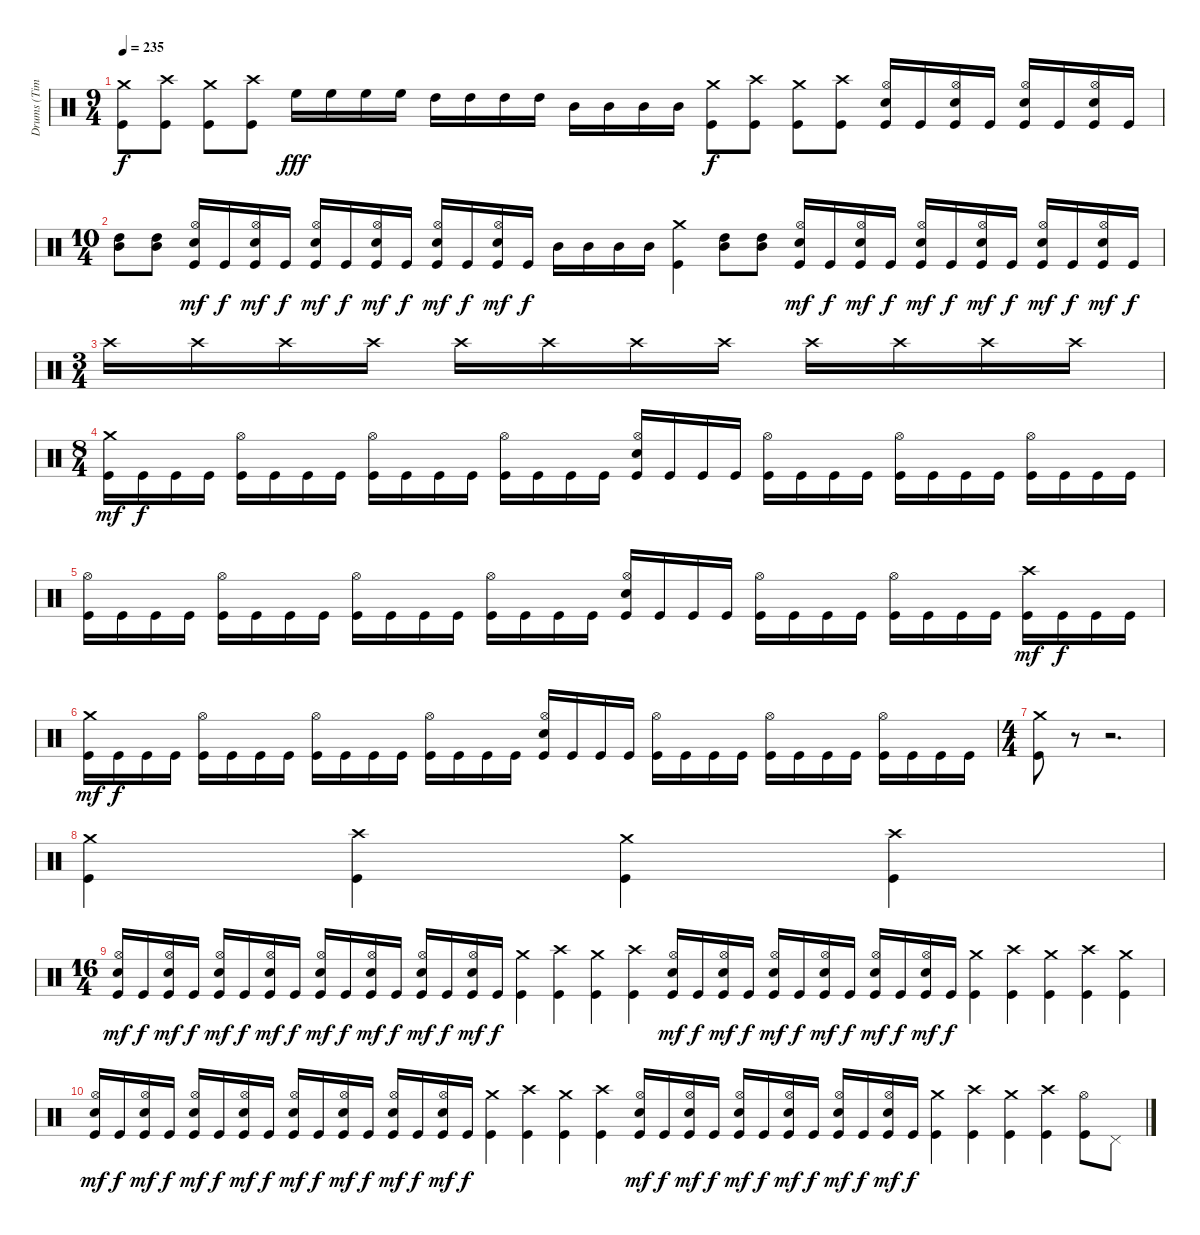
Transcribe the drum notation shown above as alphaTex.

\track ("Drums (Tim Yeung)" "Drums (Tim") {instrument percussion}
\staff {score}
\articulation defaults
\ts (9 4)
\tempo 235
\clef neutral
\ks c
("Crash medium (hit)" "Kick (hit)").8{dy f} ("Crash high (hit)" "Kick (hit)").8 ("Crash medium (hit)" "Kick (hit)").8 ("Crash high (hit)" "Kick (hit)").8 "High Floor Tom (hit)".16{dy fff} "High Floor Tom (hit)".16 "High Floor Tom (hit)".16 "High Floor Tom (hit)".16 "High Tom (hit)".16 "High Tom (hit)".16 "High Tom (hit)".16 "High Tom (hit)".16 "Mid Tom (hit)".16 "Mid Tom (hit)".16 "Mid Tom (hit)".16 "Mid Tom (hit)".16 ("Crash medium (hit)" "Kick (hit)").8{dy f} ("Crash high (hit)" "Kick (hit)").8 ("Crash medium (hit)" "Kick (hit)").8 ("Crash high (hit)" "Kick (hit)").8 ("Hi-Hat (open)" "Electric Snare (hit)" "Kick (hit)").16 "Kick (hit)".16 ("Hi-Hat (open)" "Electric Snare (hit)" "Kick (hit)").16 "Kick (hit)".16 ("Hi-Hat (open)" "Electric Snare (hit)" "Kick (hit)").16 "Kick (hit)".16 ("Hi-Hat (open)" "Electric Snare (hit)" "Kick (hit)").16 "Kick (hit)".16 |
\ts (10 4)
("High Tom (hit)" "Mid Tom (hit)").8 ("High Tom (hit)" "Mid Tom (hit)").8 ("Hi-Hat (open)" "Electric Snare (hit)" "Kick (hit)").16{dy mf} "Kick (hit)".16{dy f} ("Hi-Hat (open)" "Electric Snare (hit)" "Kick (hit)").16{dy mf} "Kick (hit)".16{dy f} ("Hi-Hat (open)" "Electric Snare (hit)" "Kick (hit)").16{dy mf} "Kick (hit)".16{dy f} ("Hi-Hat (open)" "Electric Snare (hit)" "Kick (hit)").16{dy mf} "Kick (hit)".16{dy f} ("Hi-Hat (open)" "Electric Snare (hit)" "Kick (hit)").16{dy mf} "Kick (hit)".16{dy f} ("Hi-Hat (open)" "Electric Snare (hit)" "Kick (hit)").16{dy mf} "Kick (hit)".16{dy f} "Mid Tom (hit)".16 "Mid Tom (hit)".16 "Mid Tom (hit)".16 "Mid Tom (hit)".16 ("Crash medium (hit)" "Kick (hit)").4 ("High Tom (hit)" "Mid Tom (hit)").8 ("High Tom (hit)" "Mid Tom (hit)").8 ("Hi-Hat (open)" "Electric Snare (hit)" "Kick (hit)").16{dy mf} "Kick (hit)".16{dy f} ("Hi-Hat (open)" "Electric Snare (hit)" "Kick (hit)").16{dy mf} "Kick (hit)".16{dy f} ("Hi-Hat (open)" "Electric Snare (hit)" "Kick (hit)").16{dy mf} "Kick (hit)".16{dy f} ("Hi-Hat (open)" "Electric Snare (hit)" "Kick (hit)").16{dy mf} "Kick (hit)".16{dy f} ("Hi-Hat (open)" "Electric Snare (hit)" "Kick (hit)").16{dy mf} "Kick (hit)".16{dy f} ("Hi-Hat (open)" "Electric Snare (hit)" "Kick (hit)").16{dy mf} "Kick (hit)".16{dy f} |
\ts (3 4)
"Crash high (hit)".16{volume 5} "Crash high (hit)".16{volume 16} "Crash high (hit)".16 "Crash high (hit)".16 "Crash high (hit)".16 "Crash high (hit)".16 "Crash high (hit)".16 "Crash high (hit)".16 "Crash high (hit)".16 "Crash high (hit)".16 "Crash high (hit)".16 "Crash high (hit)".16 |
\ts (8 4)
("Crash medium (hit)" "Kick (hit)").16{dy mf} "Kick (hit)".16{dy f} "Kick (hit)".16 "Kick (hit)".16 ("Hi-Hat (open)" "Kick (hit)").16 "Kick (hit)".16 "Kick (hit)".16 "Kick (hit)".16 ("Hi-Hat (open)" "Kick (hit)").16 "Kick (hit)".16 "Kick (hit)".16 "Kick (hit)".16 ("Hi-Hat (open)" "Kick (hit)").16 "Kick (hit)".16 "Kick (hit)".16 "Kick (hit)".16 ("Hi-Hat (open)" "Electric Snare (hit)" "Kick (hit)").16 "Kick (hit)".16 "Kick (hit)".16 "Kick (hit)".16 ("Hi-Hat (open)" "Kick (hit)").16 "Kick (hit)".16 "Kick (hit)".16 "Kick (hit)".16 ("Hi-Hat (open)" "Kick (hit)").16 "Kick (hit)".16 "Kick (hit)".16 "Kick (hit)".16 ("Hi-Hat (open)" "Kick (hit)").16 "Kick (hit)".16 "Kick (hit)".16 "Kick (hit)".16 |
("Hi-Hat (open)" "Kick (hit)").16 "Kick (hit)".16 "Kick (hit)".16 "Kick (hit)".16 ("Hi-Hat (open)" "Kick (hit)").16 "Kick (hit)".16 "Kick (hit)".16 "Kick (hit)".16 ("Hi-Hat (open)" "Kick (hit)").16 "Kick (hit)".16 "Kick (hit)".16 "Kick (hit)".16 ("Hi-Hat (open)" "Kick (hit)").16 "Kick (hit)".16 "Kick (hit)".16 "Kick (hit)".16 ("Hi-Hat (open)" "Electric Snare (hit)" "Kick (hit)").16 "Kick (hit)".16 "Kick (hit)".16 "Kick (hit)".16 ("Hi-Hat (open)" "Kick (hit)").16 "Kick (hit)".16 "Kick (hit)".16 "Kick (hit)".16 ("Hi-Hat (open)" "Kick (hit)").16 "Kick (hit)".16 "Kick (hit)".16 "Kick (hit)".16 ("Crash high (hit)" "Kick (hit)").16{dy mf} "Kick (hit)".16{dy f} "Kick (hit)".16 "Kick (hit)".16 |
("Crash medium (hit)" "Kick (hit)").16{dy mf} "Kick (hit)".16{dy f} "Kick (hit)".16 "Kick (hit)".16 ("Hi-Hat (open)" "Kick (hit)").16 "Kick (hit)".16 "Kick (hit)".16 "Kick (hit)".16 ("Hi-Hat (open)" "Kick (hit)").16 "Kick (hit)".16 "Kick (hit)".16 "Kick (hit)".16 ("Hi-Hat (open)" "Kick (hit)").16 "Kick (hit)".16 "Kick (hit)".16 "Kick (hit)".16 ("Hi-Hat (open)" "Electric Snare (hit)" "Kick (hit)").16 "Kick (hit)".16 "Kick (hit)".16 "Kick (hit)".16 ("Hi-Hat (open)" "Kick (hit)").16 "Kick (hit)".16 "Kick (hit)".16 "Kick (hit)".16 ("Hi-Hat (open)" "Kick (hit)").16 "Kick (hit)".16 "Kick (hit)".16 "Kick (hit)".16 ("Hi-Hat (open)" "Kick (hit)").16 "Kick (hit)".16 "Kick (hit)".16 "Kick (hit)".16 |
\ts (4 4)
("Crash medium (hit)" "Kick (hit)").8 r.8{volume 0} r.2{d} |
("Crash medium (hit)" "Kick (hit)").4{volume 16} ("Crash high (hit)" "Kick (hit)").4 ("Crash medium (hit)" "Kick (hit)").4 ("Crash high (hit)" "Kick (hit)").4 |
\ts (16 4)
("Hi-Hat (open)" "Electric Snare (hit)" "Kick (hit)").16{dy mf} "Kick (hit)".16{dy f} ("Hi-Hat (open)" "Electric Snare (hit)" "Kick (hit)").16{dy mf} "Kick (hit)".16{dy f} ("Hi-Hat (open)" "Electric Snare (hit)" "Kick (hit)").16{dy mf} "Kick (hit)".16{dy f} ("Hi-Hat (open)" "Electric Snare (hit)" "Kick (hit)").16{dy mf} "Kick (hit)".16{dy f} ("Hi-Hat (open)" "Electric Snare (hit)" "Kick (hit)").16{dy mf} "Kick (hit)".16{dy f} ("Hi-Hat (open)" "Electric Snare (hit)" "Kick (hit)").16{dy mf} "Kick (hit)".16{dy f} ("Hi-Hat (open)" "Electric Snare (hit)" "Kick (hit)").16{dy mf} "Kick (hit)".16{dy f} ("Hi-Hat (open)" "Electric Snare (hit)" "Kick (hit)").16{dy mf} "Kick (hit)".16{dy f} ("Crash medium (hit)" "Kick (hit)").4 ("Crash high (hit)" "Kick (hit)").4 ("Crash medium (hit)" "Kick (hit)").4 ("Crash high (hit)" "Kick (hit)").4 ("Hi-Hat (open)" "Electric Snare (hit)" "Kick (hit)").16{dy mf} "Kick (hit)".16{dy f} ("Hi-Hat (open)" "Electric Snare (hit)" "Kick (hit)").16{dy mf} "Kick (hit)".16{dy f} ("Hi-Hat (open)" "Electric Snare (hit)" "Kick (hit)").16{dy mf} "Kick (hit)".16{dy f} ("Hi-Hat (open)" "Electric Snare (hit)" "Kick (hit)").16{dy mf} "Kick (hit)".16{dy f} ("Hi-Hat (open)" "Electric Snare (hit)" "Kick (hit)").16{dy mf} "Kick (hit)".16{dy f} ("Hi-Hat (open)" "Electric Snare (hit)" "Kick (hit)").16{dy mf} "Kick (hit)".16{dy f} ("Crash medium (hit)" "Kick (hit)").4 ("Crash high (hit)" "Kick (hit)").4 ("Crash medium (hit)" "Kick (hit)").4 ("Crash high (hit)" "Kick (hit)").4 ("Crash medium (hit)" "Kick (hit)").4 |
("Hi-Hat (open)" "Electric Snare (hit)" "Kick (hit)").16{dy mf} "Kick (hit)".16{dy f} ("Hi-Hat (open)" "Electric Snare (hit)" "Kick (hit)").16{dy mf} "Kick (hit)".16{dy f} ("Hi-Hat (open)" "Electric Snare (hit)" "Kick (hit)").16{dy mf} "Kick (hit)".16{dy f} ("Hi-Hat (open)" "Electric Snare (hit)" "Kick (hit)").16{dy mf} "Kick (hit)".16{dy f} ("Hi-Hat (open)" "Electric Snare (hit)" "Kick (hit)").16{dy mf} "Kick (hit)".16{dy f} ("Hi-Hat (open)" "Electric Snare (hit)" "Kick (hit)").16{dy mf} "Kick (hit)".16{dy f} ("Hi-Hat (open)" "Electric Snare (hit)" "Kick (hit)").16{dy mf} "Kick (hit)".16{dy f} ("Hi-Hat (open)" "Electric Snare (hit)" "Kick (hit)").16{dy mf} "Kick (hit)".16{dy f} ("Crash medium (hit)" "Kick (hit)").4 ("Crash high (hit)" "Kick (hit)").4 ("Crash medium (hit)" "Kick (hit)").4 ("Crash high (hit)" "Kick (hit)").4 ("Hi-Hat (open)" "Electric Snare (hit)" "Kick (hit)").16{dy mf} "Kick (hit)".16{dy f} ("Hi-Hat (open)" "Electric Snare (hit)" "Kick (hit)").16{dy mf} "Kick (hit)".16{dy f} ("Hi-Hat (open)" "Electric Snare (hit)" "Kick (hit)").16{dy mf} "Kick (hit)".16{dy f} ("Hi-Hat (open)" "Electric Snare (hit)" "Kick (hit)").16{dy mf} "Kick (hit)".16{dy f} ("Hi-Hat (open)" "Electric Snare (hit)" "Kick (hit)").16{dy mf} "Kick (hit)".16{dy f} ("Hi-Hat (open)" "Electric Snare (hit)" "Kick (hit)").16{dy mf} "Kick (hit)".16{dy f} ("Crash medium (hit)" "Kick (hit)").4 ("Crash high (hit)" "Kick (hit)").4 ("Crash medium (hit)" "Kick (hit)").4 ("Crash high (hit)" "Kick (hit)").4 ("Hi-Hat (open)" "Kick (hit)").8 "Pedal Hi-Hat (hit)".8
